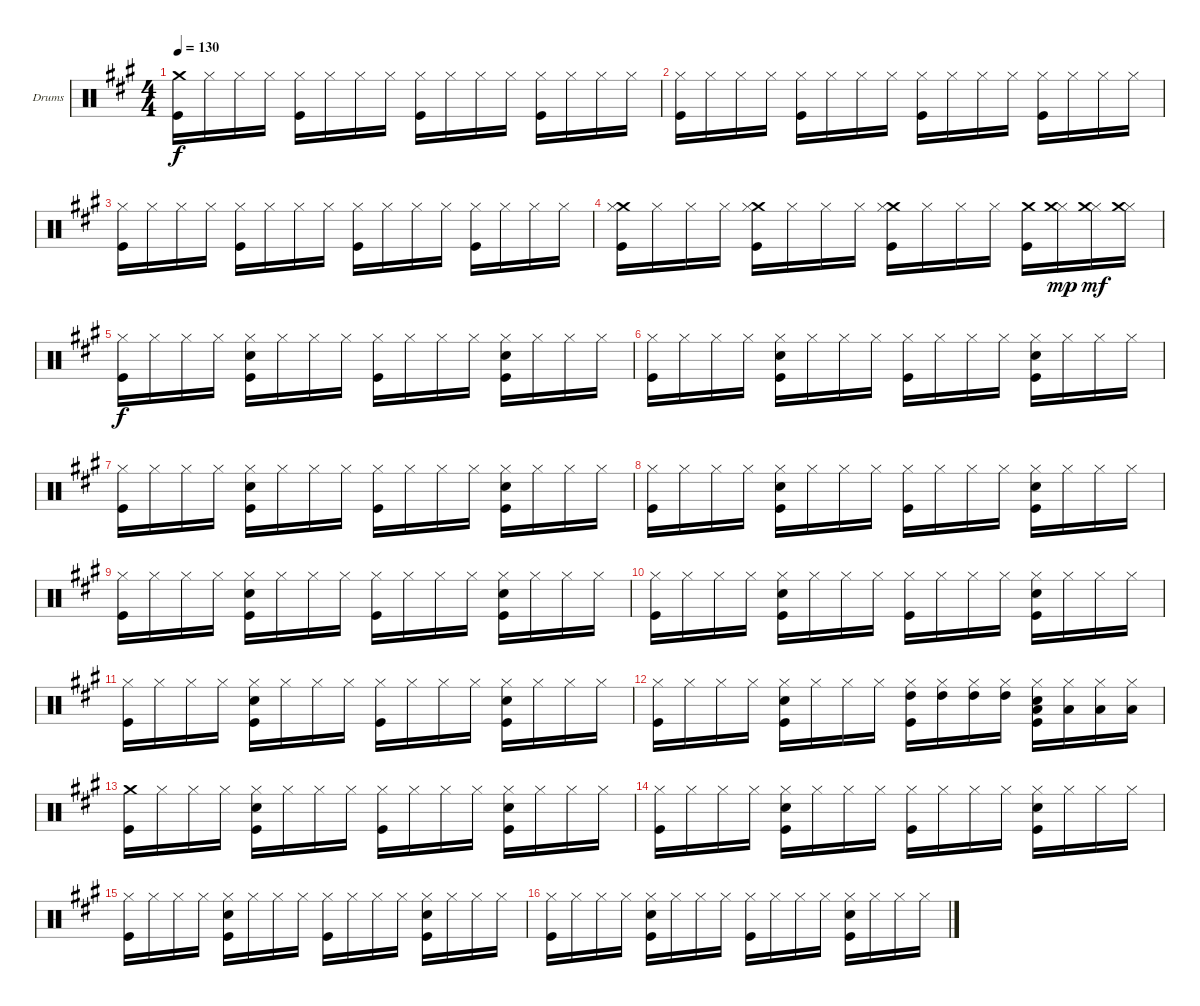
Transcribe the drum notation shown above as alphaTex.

\bracketExtendMode groupsimilarinstruments
\firstSystemTrackNameOrientation horizontal
\otherSystemsTrackNameOrientation horizontal
\track ("DRUMS" "Drums") {instrument percussion}
\staff {score}
\articulation defaults
\ts (4 4)
\tempo 130
\clef neutral
\ks f#minor
("Kick (hit)" "Crash medium (hit)").16{dy f} "Hi-Hat (closed)".16 "Hi-Hat (closed)".16 "Hi-Hat (closed)".16 ("Kick (hit)" "Hi-Hat (closed)").16 "Hi-Hat (closed)".16 "Hi-Hat (closed)".16 "Hi-Hat (closed)".16 ("Hi-Hat (closed)" "Kick (hit)").16 "Hi-Hat (closed)".16 "Hi-Hat (closed)".16 "Hi-Hat (closed)".16 ("Kick (hit)" "Hi-Hat (closed)").16 "Hi-Hat (closed)".16 "Hi-Hat (closed)".16 "Hi-Hat (closed)".16 |
("Hi-Hat (closed)" "Kick (hit)").16 "Hi-Hat (closed)".16 "Hi-Hat (closed)".16 "Hi-Hat (closed)".16 ("Kick (hit)" "Hi-Hat (closed)").16 "Hi-Hat (closed)".16 "Hi-Hat (closed)".16 "Hi-Hat (closed)".16 ("Hi-Hat (closed)" "Kick (hit)").16 "Hi-Hat (closed)".16 "Hi-Hat (closed)".16 "Hi-Hat (closed)".16 ("Kick (hit)" "Hi-Hat (closed)").16 "Hi-Hat (closed)".16 "Hi-Hat (closed)".16 "Hi-Hat (closed)".16 |
("Hi-Hat (closed)" "Kick (hit)").16 "Hi-Hat (closed)".16 "Hi-Hat (closed)".16 "Hi-Hat (closed)".16 ("Kick (hit)" "Hi-Hat (closed)").16 "Hi-Hat (closed)".16 "Hi-Hat (closed)".16 "Hi-Hat (closed)".16 ("Hi-Hat (closed)" "Kick (hit)").16 "Hi-Hat (closed)".16 "Hi-Hat (closed)".16 "Hi-Hat (closed)".16 ("Kick (hit)" "Hi-Hat (closed)").16 "Hi-Hat (closed)".16 "Hi-Hat (closed)".16 "Hi-Hat (closed)".16 |
("Kick (hit)" "Crash medium (hit)" "Hi-Hat (closed)").16 "Hi-Hat (closed)".16 "Hi-Hat (closed)".16 "Hi-Hat (closed)".16 ("Kick (hit)" "Crash medium (hit)" "Hi-Hat (closed)").16 "Hi-Hat (closed)".16 "Hi-Hat (closed)".16 "Hi-Hat (closed)".16 ("Kick (hit)" "Crash medium (hit)" "Hi-Hat (closed)").16 "Hi-Hat (closed)".16 "Hi-Hat (closed)".16 "Hi-Hat (closed)".16 ("Kick (hit)" "Crash medium (hit)").16 ("Hi-Hat (closed)" "Crash medium (hit)").16{dy mp} ("Hi-Hat (closed)" "Crash medium (hit)").16{dy mf} ("Hi-Hat (closed)" "Crash medium (hit)").16 |
("Kick (hit)" "Hi-Hat (closed)").16{dy f} "Hi-Hat (closed)".16 "Hi-Hat (closed)".16 "Hi-Hat (closed)".16 ("Hi-Hat (closed)" "Snare (hit) 2" "Kick (hit)").16 "Hi-Hat (closed)".16 "Hi-Hat (closed)".16 "Hi-Hat (closed)".16 ("Hi-Hat (closed)" "Kick (hit)").16 "Hi-Hat (closed)".16 "Hi-Hat (closed)".16 "Hi-Hat (closed)".16 ("Hi-Hat (closed)" "Snare (hit) 2" "Kick (hit)").16 "Hi-Hat (closed)".16 "Hi-Hat (closed)".16 "Hi-Hat (closed)".16 |
("Hi-Hat (closed)" "Kick (hit)").16 "Hi-Hat (closed)".16 "Hi-Hat (closed)".16 "Hi-Hat (closed)".16 ("Hi-Hat (closed)" "Snare (hit) 2" "Kick (hit)").16 "Hi-Hat (closed)".16 "Hi-Hat (closed)".16 "Hi-Hat (closed)".16 ("Hi-Hat (closed)" "Kick (hit)").16 "Hi-Hat (closed)".16 "Hi-Hat (closed)".16 "Hi-Hat (closed)".16 ("Hi-Hat (closed)" "Snare (hit) 2" "Kick (hit)").16 "Hi-Hat (closed)".16 "Hi-Hat (closed)".16 "Hi-Hat (closed)".16 |
("Hi-Hat (closed)" "Kick (hit)").16 "Hi-Hat (closed)".16 "Hi-Hat (closed)".16 "Hi-Hat (closed)".16 ("Hi-Hat (closed)" "Snare (hit) 2" "Kick (hit)").16 "Hi-Hat (closed)".16 "Hi-Hat (closed)".16 "Hi-Hat (closed)".16 ("Hi-Hat (closed)" "Kick (hit)").16 "Hi-Hat (closed)".16 "Hi-Hat (closed)".16 "Hi-Hat (closed)".16 ("Hi-Hat (closed)" "Snare (hit) 2" "Kick (hit)").16 "Hi-Hat (closed)".16 "Hi-Hat (closed)".16 "Hi-Hat (closed)".16 |
("Hi-Hat (closed)" "Kick (hit)").16 "Hi-Hat (closed)".16 "Hi-Hat (closed)".16 "Hi-Hat (closed)".16 ("Hi-Hat (closed)" "Snare (hit) 2" "Kick (hit)").16 "Hi-Hat (closed)".16 "Hi-Hat (closed)".16 "Hi-Hat (closed)".16 ("Hi-Hat (closed)" "Kick (hit)").16 "Hi-Hat (closed)".16 "Hi-Hat (closed)".16 "Hi-Hat (closed)".16 ("Hi-Hat (closed)" "Snare (hit) 2" "Kick (hit)").16 "Hi-Hat (closed)".16 "Hi-Hat (closed)".16 "Hi-Hat (closed)".16 |
("Hi-Hat (closed)" "Kick (hit)").16 "Hi-Hat (closed)".16 "Hi-Hat (closed)".16 "Hi-Hat (closed)".16 ("Hi-Hat (closed)" "Snare (hit) 2" "Kick (hit)").16 "Hi-Hat (closed)".16 "Hi-Hat (closed)".16 "Hi-Hat (closed)".16 ("Hi-Hat (closed)" "Kick (hit)").16 "Hi-Hat (closed)".16 "Hi-Hat (closed)".16 "Hi-Hat (closed)".16 ("Hi-Hat (closed)" "Snare (hit) 2" "Kick (hit)").16 "Hi-Hat (closed)".16 "Hi-Hat (closed)".16 "Hi-Hat (closed)".16 |
("Hi-Hat (closed)" "Kick (hit)").16 "Hi-Hat (closed)".16 "Hi-Hat (closed)".16 "Hi-Hat (closed)".16 ("Hi-Hat (closed)" "Snare (hit) 2" "Kick (hit)").16 "Hi-Hat (closed)".16 "Hi-Hat (closed)".16 "Hi-Hat (closed)".16 ("Hi-Hat (closed)" "Kick (hit)").16 "Hi-Hat (closed)".16 "Hi-Hat (closed)".16 "Hi-Hat (closed)".16 ("Hi-Hat (closed)" "Snare (hit) 2" "Kick (hit)").16 "Hi-Hat (closed)".16 "Hi-Hat (closed)".16 "Hi-Hat (closed)".16 |
("Hi-Hat (closed)" "Kick (hit)").16 "Hi-Hat (closed)".16 "Hi-Hat (closed)".16 "Hi-Hat (closed)".16 ("Hi-Hat (closed)" "Snare (hit) 2" "Kick (hit)").16 "Hi-Hat (closed)".16 "Hi-Hat (closed)".16 "Hi-Hat (closed)".16 ("Hi-Hat (closed)" "Kick (hit)").16 "Hi-Hat (closed)".16 "Hi-Hat (closed)".16 "Hi-Hat (closed)".16 ("Hi-Hat (closed)" "Snare (hit) 2" "Kick (hit)").16 "Hi-Hat (closed)".16 "Hi-Hat (closed)".16 "Hi-Hat (closed)".16 |
("Hi-Hat (closed)" "Kick (hit)").16 "Hi-Hat (closed)".16 "Hi-Hat (closed)".16 "Hi-Hat (closed)".16 ("Hi-Hat (closed)" "Snare (hit) 2" "Kick (hit)").16 "Hi-Hat (closed)".16 "Hi-Hat (closed)".16 "Hi-Hat (closed)".16 ("High Tom (hit)" "Hi-Hat (closed)" "Kick (hit)").16 ("High Tom (hit)" "Hi-Hat (closed)").16 ("High Tom (hit)" "Hi-Hat (closed)").16 ("High Tom (hit)" "Hi-Hat (closed)").16 ("Low Tom (hit)" "Hi-Hat (closed)" "Snare (hit) 2" "Kick (hit)").16 ("Low Tom (hit)" "Hi-Hat (closed)").16 ("Low Tom (hit)" "Hi-Hat (closed)").16 ("Low Tom (hit)" "Hi-Hat (closed)").16 |
("Kick (hit)" "Crash medium (hit)").16 "Hi-Hat (closed)".16 "Hi-Hat (closed)".16 "Hi-Hat (closed)".16 ("Hi-Hat (closed)" "Snare (hit) 2" "Kick (hit)").16 "Hi-Hat (closed)".16 "Hi-Hat (closed)".16 "Hi-Hat (closed)".16 ("Hi-Hat (closed)" "Kick (hit)").16 "Hi-Hat (closed)".16 "Hi-Hat (closed)".16 "Hi-Hat (closed)".16 ("Hi-Hat (closed)" "Snare (hit) 2" "Kick (hit)").16 "Hi-Hat (closed)".16 "Hi-Hat (closed)".16 "Hi-Hat (closed)".16 |
("Hi-Hat (closed)" "Kick (hit)").16 "Hi-Hat (closed)".16 "Hi-Hat (closed)".16 "Hi-Hat (closed)".16 ("Hi-Hat (closed)" "Snare (hit) 2" "Kick (hit)").16 "Hi-Hat (closed)".16 "Hi-Hat (closed)".16 "Hi-Hat (closed)".16 ("Hi-Hat (closed)" "Kick (hit)").16 "Hi-Hat (closed)".16 "Hi-Hat (closed)".16 "Hi-Hat (closed)".16 ("Hi-Hat (closed)" "Snare (hit) 2" "Kick (hit)").16 "Hi-Hat (closed)".16 "Hi-Hat (closed)".16 "Hi-Hat (closed)".16 |
("Hi-Hat (closed)" "Kick (hit)").16 "Hi-Hat (closed)".16 "Hi-Hat (closed)".16 "Hi-Hat (closed)".16 ("Hi-Hat (closed)" "Snare (hit) 2" "Kick (hit)").16 "Hi-Hat (closed)".16 "Hi-Hat (closed)".16 "Hi-Hat (closed)".16 ("Hi-Hat (closed)" "Kick (hit)").16 "Hi-Hat (closed)".16 "Hi-Hat (closed)".16 "Hi-Hat (closed)".16 ("Hi-Hat (closed)" "Snare (hit) 2" "Kick (hit)").16 "Hi-Hat (closed)".16 "Hi-Hat (closed)".16 "Hi-Hat (closed)".16 |
("Hi-Hat (closed)" "Kick (hit)").16 "Hi-Hat (closed)".16 "Hi-Hat (closed)".16 "Hi-Hat (closed)".16 ("Hi-Hat (closed)" "Snare (hit) 2" "Kick (hit)").16 "Hi-Hat (closed)".16 "Hi-Hat (closed)".16 "Hi-Hat (closed)".16 ("Hi-Hat (closed)" "Kick (hit)").16 "Hi-Hat (closed)".16 "Hi-Hat (closed)".16 "Hi-Hat (closed)".16 ("Hi-Hat (closed)" "Snare (hit) 2" "Kick (hit)").16 "Hi-Hat (closed)".16 "Hi-Hat (closed)".16 "Hi-Hat (closed)".16
